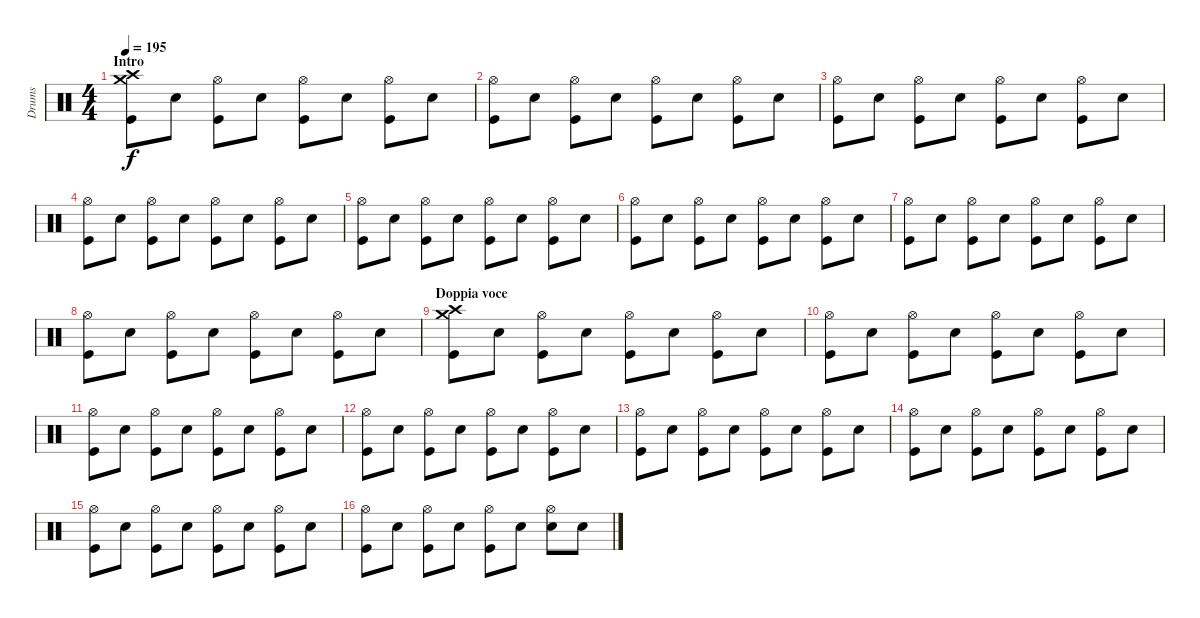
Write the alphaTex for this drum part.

\track ("Drums" "Drums") {instrument percussion}
\staff {score}
\articulation defaults
\ts (4 4)
\section ("" "Intro")
\tempo 195
\clef neutral
\ks c
("Crash high (hit)" "Crash medium (hit)" "Kick (hit)").8{dy f} "Electric Snare (hit)".8 ("Hi-Hat (open)" "Kick (hit)").8 "Electric Snare (hit)".8 ("Hi-Hat (open)" "Kick (hit)").8 "Electric Snare (hit)".8 ("Hi-Hat (open)" "Kick (hit)").8 "Electric Snare (hit)".8 |
("Hi-Hat (open)" "Kick (hit)").8 "Electric Snare (hit)".8 ("Hi-Hat (open)" "Kick (hit)").8 "Electric Snare (hit)".8 ("Hi-Hat (open)" "Kick (hit)").8 "Electric Snare (hit)".8 ("Hi-Hat (open)" "Kick (hit)").8 "Electric Snare (hit)".8 |
("Hi-Hat (open)" "Kick (hit)").8 "Electric Snare (hit)".8 ("Hi-Hat (open)" "Kick (hit)").8 "Electric Snare (hit)".8 ("Hi-Hat (open)" "Kick (hit)").8 "Electric Snare (hit)".8 ("Hi-Hat (open)" "Kick (hit)").8 "Electric Snare (hit)".8 |
("Hi-Hat (open)" "Kick (hit)").8 "Electric Snare (hit)".8 ("Hi-Hat (open)" "Kick (hit)").8 "Electric Snare (hit)".8 ("Hi-Hat (open)" "Kick (hit)").8 "Electric Snare (hit)".8 ("Hi-Hat (open)" "Kick (hit)").8 "Electric Snare (hit)".8 |
("Hi-Hat (open)" "Kick (hit)").8 "Electric Snare (hit)".8 ("Hi-Hat (open)" "Kick (hit)").8 "Electric Snare (hit)".8 ("Hi-Hat (open)" "Kick (hit)").8 "Electric Snare (hit)".8 ("Hi-Hat (open)" "Kick (hit)").8 "Electric Snare (hit)".8 |
("Hi-Hat (open)" "Kick (hit)").8 "Electric Snare (hit)".8 ("Hi-Hat (open)" "Kick (hit)").8 "Electric Snare (hit)".8 ("Hi-Hat (open)" "Kick (hit)").8 "Electric Snare (hit)".8 ("Hi-Hat (open)" "Kick (hit)").8 "Electric Snare (hit)".8 |
("Hi-Hat (open)" "Kick (hit)").8 "Electric Snare (hit)".8 ("Hi-Hat (open)" "Kick (hit)").8 "Electric Snare (hit)".8 ("Hi-Hat (open)" "Kick (hit)").8 "Electric Snare (hit)".8 ("Hi-Hat (open)" "Kick (hit)").8 "Electric Snare (hit)".8 |
("Hi-Hat (open)" "Kick (hit)").8 "Electric Snare (hit)".8 ("Hi-Hat (open)" "Kick (hit)").8 "Electric Snare (hit)".8 ("Hi-Hat (open)" "Kick (hit)").8 "Electric Snare (hit)".8 ("Hi-Hat (open)" "Kick (hit)").8 "Electric Snare (hit)".8 |
\section ("" "Doppia voce ")
("Crash high (hit)" "Crash medium (hit)" "Kick (hit)").8 "Electric Snare (hit)".8 ("Hi-Hat (open)" "Kick (hit)").8 "Electric Snare (hit)".8 ("Hi-Hat (open)" "Kick (hit)").8 "Electric Snare (hit)".8 ("Hi-Hat (open)" "Kick (hit)").8 "Electric Snare (hit)".8 |
("Hi-Hat (open)" "Kick (hit)").8 "Electric Snare (hit)".8 ("Hi-Hat (open)" "Kick (hit)").8 "Electric Snare (hit)".8 ("Hi-Hat (open)" "Kick (hit)").8 "Electric Snare (hit)".8 ("Hi-Hat (open)" "Kick (hit)").8 "Electric Snare (hit)".8 |
("Hi-Hat (open)" "Kick (hit)").8 "Electric Snare (hit)".8 ("Hi-Hat (open)" "Kick (hit)").8 "Electric Snare (hit)".8 ("Hi-Hat (open)" "Kick (hit)").8 "Electric Snare (hit)".8 ("Hi-Hat (open)" "Kick (hit)").8 "Electric Snare (hit)".8 |
("Hi-Hat (open)" "Kick (hit)").8 "Electric Snare (hit)".8 ("Hi-Hat (open)" "Kick (hit)").8 "Electric Snare (hit)".8 ("Hi-Hat (open)" "Kick (hit)").8 "Electric Snare (hit)".8 ("Hi-Hat (open)" "Kick (hit)").8 "Electric Snare (hit)".8 |
("Hi-Hat (open)" "Kick (hit)").8 "Electric Snare (hit)".8 ("Hi-Hat (open)" "Kick (hit)").8 "Electric Snare (hit)".8 ("Hi-Hat (open)" "Kick (hit)").8 "Electric Snare (hit)".8 ("Hi-Hat (open)" "Kick (hit)").8 "Electric Snare (hit)".8 |
("Hi-Hat (open)" "Kick (hit)").8 "Electric Snare (hit)".8 ("Hi-Hat (open)" "Kick (hit)").8 "Electric Snare (hit)".8 ("Hi-Hat (open)" "Kick (hit)").8 "Electric Snare (hit)".8 ("Hi-Hat (open)" "Kick (hit)").8 "Electric Snare (hit)".8 |
("Hi-Hat (open)" "Kick (hit)").8 "Electric Snare (hit)".8 ("Hi-Hat (open)" "Kick (hit)").8 "Electric Snare (hit)".8 ("Hi-Hat (open)" "Kick (hit)").8 "Electric Snare (hit)".8 ("Hi-Hat (open)" "Kick (hit)").8 "Electric Snare (hit)".8 |
("Hi-Hat (open)" "Kick (hit)").8 "Electric Snare (hit)".8 ("Hi-Hat (open)" "Kick (hit)").8 "Electric Snare (hit)".8 ("Hi-Hat (open)" "Kick (hit)").8 "Electric Snare (hit)".8 ("Hi-Hat (open)" "Electric Snare (hit)").8 "Electric Snare (hit)".8
